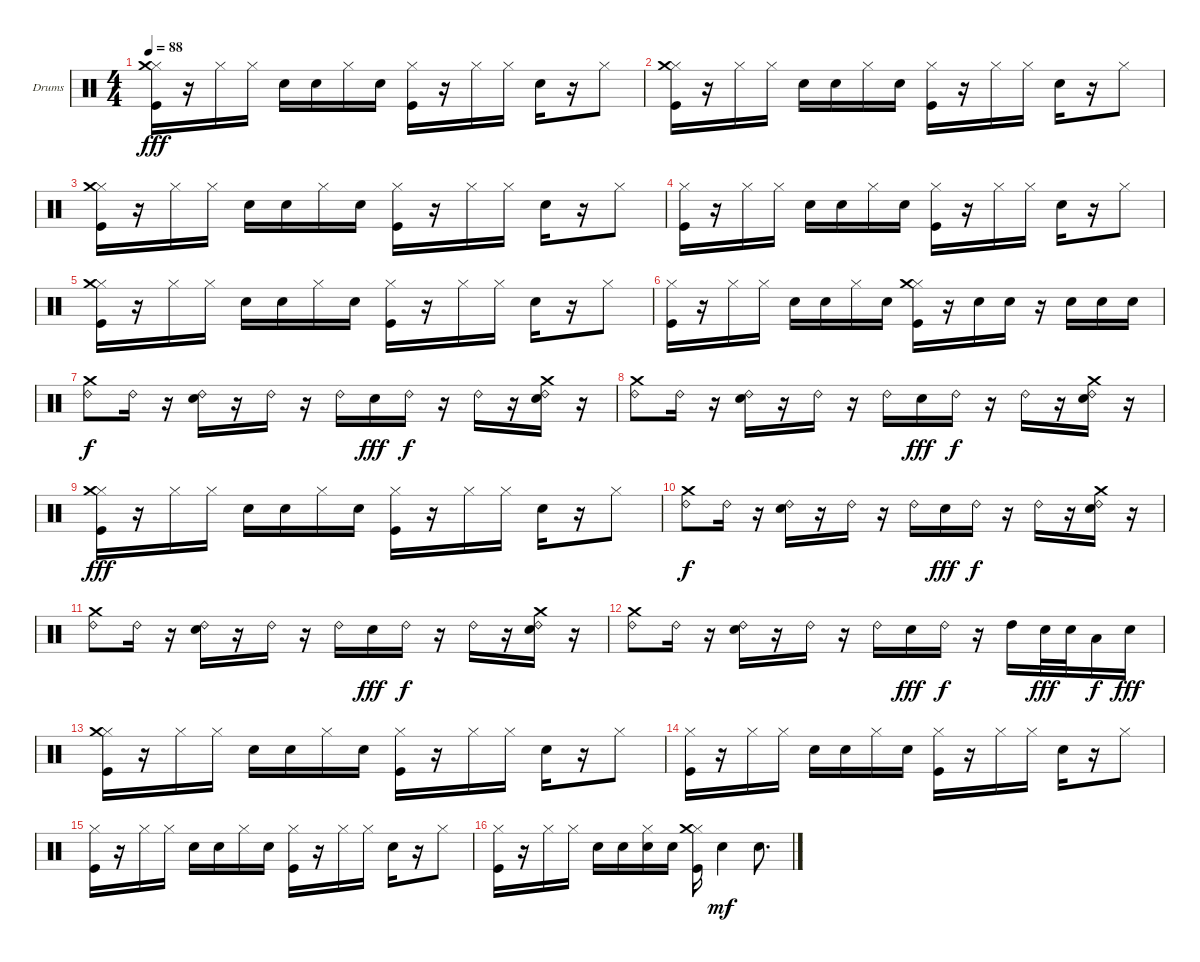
\defaultSystemsLayout 4
\bracketExtendMode groupsimilarinstruments
\firstSystemTrackNameOrientation horizontal
\otherSystemsTrackNameOrientation horizontal
\track ("Drumkit" "Drums") {instrument percussion}
\staff {score}
\articulation defaults
\ts (4 4)
\tempo 88
\clef neutral
\ks c
("Hi-Hat (closed)" "Kick (hit)" "Crash medium (hit)").16{dy fff} r.16 "Hi-Hat (closed)".16 "Hi-Hat (closed)".16 "Snare (hit) 2".16 "Snare (hit) 2".16 "Hi-Hat (closed)".16 "Snare (hit) 2".16 ("Hi-Hat (closed)" "Kick (hit)").16 r.16 "Hi-Hat (closed)".16 "Hi-Hat (closed)".16 "Snare (hit) 2".16 r.16 "Hi-Hat (closed)".8 |
("Hi-Hat (closed)" "Kick (hit)" "Crash medium (hit)").16 r.16 "Hi-Hat (closed)".16 "Hi-Hat (closed)".16 "Snare (hit) 2".16 "Snare (hit) 2".16 "Hi-Hat (closed)".16 "Snare (hit) 2".16 ("Hi-Hat (closed)" "Kick (hit)").16 r.16 "Hi-Hat (closed)".16 "Hi-Hat (closed)".16 "Snare (hit) 2".16 r.16 "Hi-Hat (closed)".8 |
("Hi-Hat (closed)" "Kick (hit)" "Crash medium (hit)").16 r.16 "Hi-Hat (closed)".16 "Hi-Hat (closed)".16 "Snare (hit) 2".16 "Snare (hit) 2".16 "Hi-Hat (closed)".16 "Snare (hit) 2".16 ("Hi-Hat (closed)" "Kick (hit)").16 r.16 "Hi-Hat (closed)".16 "Hi-Hat (closed)".16 "Snare (hit) 2".16 r.16 "Hi-Hat (closed)".8 |
("Hi-Hat (closed)" "Kick (hit)").16 r.16 "Hi-Hat (closed)".16 "Hi-Hat (closed)".16 "Snare (hit) 2".16 "Snare (hit) 2".16 "Hi-Hat (closed)".16 "Snare (hit) 2".16 ("Hi-Hat (closed)" "Kick (hit)").16 r.16 "Hi-Hat (closed)".16 "Hi-Hat (closed)".16 "Snare (hit) 2".16 r.16 "Hi-Hat (closed)".8 |
("Hi-Hat (closed)" "Kick (hit)" "Crash medium (hit)").16 r.16 "Hi-Hat (closed)".16 "Hi-Hat (closed)".16 "Snare (hit) 2".16 "Snare (hit) 2".16 "Hi-Hat (closed)".16 "Snare (hit) 2".16 ("Hi-Hat (closed)" "Kick (hit)").16 r.16 "Hi-Hat (closed)".16 "Hi-Hat (closed)".16 "Snare (hit) 2".16 r.16 "Hi-Hat (closed)".8 |
("Hi-Hat (closed)" "Kick (hit)").16 r.16 "Hi-Hat (closed)".16 "Hi-Hat (closed)".16 "Snare (hit) 2".16 "Snare (hit) 2".16 "Hi-Hat (closed)".16 "Snare (hit) 2".16 ("Hi-Hat (closed)" "Kick (hit)" "Crash medium (hit)").16 r.16 "Snare (hit) 2".16 "Snare (hit) 2".16 r.16 "Snare (hit) 2".16 "Snare (hit) 2".16 "Snare (hit) 2".16 |
("Ride (bell) 2" "Crash medium (hit)").8{dy f} "Ride (bell) 2".16 r.16 ("Ride (bell) 2" "Snare (hit) 2").16 r.16 "Ride (bell) 2".16 r.16 "Ride (bell) 2".16 "Snare (hit) 2".16{dy fff} "Ride (bell) 2".16{dy f} r.16 "Ride (bell) 2".16 r.16 ("Ride (bell) 2" "Snare (hit) 2" "Crash medium (hit)").16 r.16 |
("Ride (bell) 2" "Crash medium (hit)").8 "Ride (bell) 2".16 r.16 ("Ride (bell) 2" "Snare (hit) 2").16 r.16 "Ride (bell) 2".16 r.16 "Ride (bell) 2".16 "Snare (hit) 2".16{dy fff} "Ride (bell) 2".16{dy f} r.16 "Ride (bell) 2".16 r.16 ("Ride (bell) 2" "Snare (hit) 2" "Crash medium (hit)").16 r.16 |
("Hi-Hat (closed)" "Kick (hit)" "Crash medium (hit)").16{dy fff} r.16 "Hi-Hat (closed)".16 "Hi-Hat (closed)".16 "Snare (hit) 2".16 "Snare (hit) 2".16 "Hi-Hat (closed)".16 "Snare (hit) 2".16 ("Hi-Hat (closed)" "Kick (hit)").16 r.16 "Hi-Hat (closed)".16 "Hi-Hat (closed)".16 "Snare (hit) 2".16 r.16 "Hi-Hat (closed)".8 |
("Ride (bell) 2" "Crash medium (hit)").8{dy f} "Ride (bell) 2".16 r.16 ("Ride (bell) 2" "Snare (hit) 2").16 r.16 "Ride (bell) 2".16 r.16 "Ride (bell) 2".16 "Snare (hit) 2".16{dy fff} "Ride (bell) 2".16{dy f} r.16 "Ride (bell) 2".16 r.16 ("Ride (bell) 2" "Snare (hit) 2" "Crash medium (hit)").16 r.16 |
("Ride (bell) 2" "Crash medium (hit)").8 "Ride (bell) 2".16 r.16 ("Ride (bell) 2" "Snare (hit) 2").16 r.16 "Ride (bell) 2".16 r.16 "Ride (bell) 2".16 "Snare (hit) 2".16{dy fff} "Ride (bell) 2".16{dy f} r.16 "Ride (bell) 2".16 r.16 ("Ride (bell) 2" "Snare (hit) 2" "Crash medium (hit)").16 r.16 |
("Ride (bell) 2" "Crash medium (hit)").8 "Ride (bell) 2".16 r.16 ("Ride (bell) 2" "Snare (hit) 2").16 r.16 "Ride (bell) 2".16 r.16 "Ride (bell) 2".16 "Snare (hit) 2".16{dy fff} "Ride (bell) 2".16{dy f} r.16 "High Tom (hit)".16 "Snare (hit) 2".32{dy fff} "Snare (hit) 2".32 "Low Tom (hit)".16{dy f} "Snare (hit) 2".16{dy fff} |
("Hi-Hat (closed)" "Kick (hit)" "Crash medium (hit)").16 r.16 "Hi-Hat (closed)".16 "Hi-Hat (closed)".16 "Snare (hit) 2".16 "Snare (hit) 2".16 "Hi-Hat (closed)".16 "Snare (hit) 2".16 ("Hi-Hat (closed)" "Kick (hit)").16 r.16 "Hi-Hat (closed)".16 "Hi-Hat (closed)".16 "Snare (hit) 2".16 r.16 "Hi-Hat (closed)".8 |
("Hi-Hat (closed)" "Kick (hit)").16 r.16 "Hi-Hat (closed)".16 "Hi-Hat (closed)".16 "Snare (hit) 2".16 "Snare (hit) 2".16 "Hi-Hat (closed)".16 "Snare (hit) 2".16 ("Hi-Hat (closed)" "Kick (hit)").16 r.16 "Hi-Hat (closed)".16 "Hi-Hat (closed)".16 "Snare (hit) 2".16 r.16 "Hi-Hat (closed)".8 |
("Hi-Hat (closed)" "Kick (hit)").16 r.16 "Hi-Hat (closed)".16 "Hi-Hat (closed)".16 "Snare (hit) 2".16 "Snare (hit) 2".16 "Hi-Hat (closed)".16 "Snare (hit) 2".16 ("Hi-Hat (closed)" "Kick (hit)").16 r.16 "Hi-Hat (closed)".16 "Hi-Hat (closed)".16 "Snare (hit) 2".16 r.16 "Hi-Hat (closed)".8 |
("Hi-Hat (closed)" "Kick (hit)").16 r.16 "Hi-Hat (closed)".16 "Hi-Hat (closed)".16 "Snare (hit) 2".16 "Snare (hit) 2".16 ("Hi-Hat (closed)" "Snare (hit) 2").16 "Snare (hit) 2".16 ("Hi-Hat (closed)" "Kick (hit)" "Crash medium (hit)").16 "Snare (hit) 2".4{dy mf} "Snare (hit) 2".8{d}
